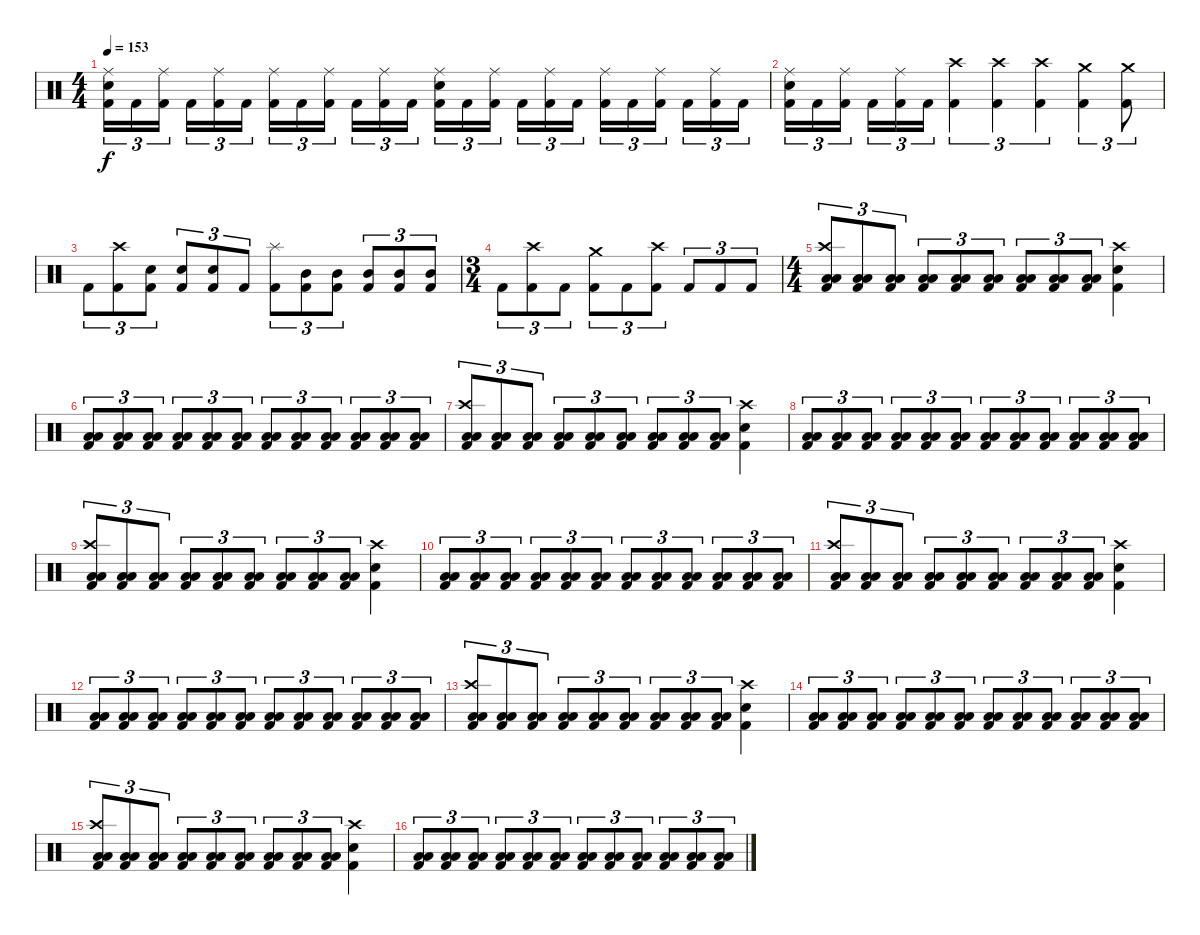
\track "" {instrument percussion}
\staff {score}
\articulation defaults
\ts (4 4)
\tempo 153
\clef neutral
\ks c
("Ride (middle)" "Electric Snare (hit)" "Kick (hit) 2").16{tu (3 2) dy f} "Kick (hit) 2".16{tu (3 2)} ("Ride (middle)" "Kick (hit) 2").16{tu (3 2)} "Kick (hit) 2".16{tu (3 2)} ("Ride (middle)" "Kick (hit) 2").16{tu (3 2)} "Kick (hit) 2".16{tu (3 2)} ("Ride (middle)" "Kick (hit) 2").16{tu (3 2)} "Kick (hit) 2".16{tu (3 2)} ("Ride (middle)" "Kick (hit) 2").16{tu (3 2)} "Kick (hit) 2".16{tu (3 2)} ("Ride (middle)" "Kick (hit) 2").16{tu (3 2)} "Kick (hit) 2".16{tu (3 2)} ("Ride (middle)" "Electric Snare (hit)" "Kick (hit) 2").16{tu (3 2)} "Kick (hit) 2".16{tu (3 2)} ("Ride (middle)" "Kick (hit) 2").16{tu (3 2)} "Kick (hit) 2".16{tu (3 2)} ("Ride (middle)" "Kick (hit) 2").16{tu (3 2)} "Kick (hit) 2".16{tu (3 2)} ("Ride (middle)" "Kick (hit) 2").16{tu (3 2)} "Kick (hit) 2".16{tu (3 2)} ("Ride (middle)" "Kick (hit) 2").16{tu (3 2)} "Kick (hit) 2".16{tu (3 2)} ("Ride (middle)" "Kick (hit) 2").16{tu (3 2)} "Kick (hit) 2".16{tu (3 2)} |
("Ride (middle)" "Electric Snare (hit)" "Kick (hit) 2").16{tu (3 2)} "Kick (hit) 2".16{tu (3 2)} ("Ride (middle)" "Kick (hit) 2").16{tu (3 2)} "Kick (hit) 2".16{tu (3 2)} ("Ride (middle)" "Kick (hit) 2").16{tu (3 2)} "Kick (hit) 2".16{tu (3 2)} ("Crash high (hit)" "Kick (hit) 2").4{tu (3 2)} ("Crash high (hit)" "Kick (hit) 2").4{tu (3 2)} ("Crash high (hit)" "Kick (hit) 2").4{tu (3 2)} ("Crash medium (hit)" "Kick (hit) 2").4{tu (3 2)} ("Crash medium (hit)" "Kick (hit) 2").8{tu (3 2)} |
"Kick (hit) 2".8{tu (3 2)} ("Crash high (hit)" "Kick (hit) 2").8{tu (3 2)} ("Electric Snare (hit)" "Kick (hit) 2").8{tu (3 2)} ("Electric Snare (hit)" "Kick (hit) 2").8{tu (3 2)} ("Electric Snare (hit)" "Kick (hit) 2").8{tu (3 2)} "Kick (hit) 2".8{tu (3 2)} ("Splash (hit)" "Kick (hit) 2").8{tu (3 2)} ("Mid Tom (hit)" "Kick (hit) 2").8{tu (3 2)} ("Mid Tom (hit)" "Kick (hit) 2").8{tu (3 2)} ("Mid Tom (hit)" "Kick (hit) 2").8{tu (3 2)} ("Mid Tom (hit)" "Kick (hit) 2").8{tu (3 2)} ("Mid Tom (hit)" "Kick (hit) 2").8{tu (3 2)} |
\ts (3 4)
"Kick (hit) 2".8{tu (3 2)} ("Crash high (hit)" "Kick (hit) 2").8{tu (3 2)} "Kick (hit) 2".8{tu (3 2)} ("Crash medium (hit)" "Kick (hit) 2").8{tu (3 2)} "Kick (hit) 2".8{tu (3 2)} ("Crash high (hit)" "Kick (hit) 2").8{tu (3 2)} "Kick (hit) 2".8{tu (3 2)} "Kick (hit) 2".8{tu (3 2)} "Kick (hit) 2".8{tu (3 2)} |
\ts (4 4)
\section ("" "")
("Crash high (hit)" "Low Floor Tom (hit)" "Low Tom (hit)" "Kick (hit) 2").8{tu (3 2)} ("Low Floor Tom (hit)" "Low Tom (hit)" "Kick (hit) 2").8{tu (3 2)} ("Low Floor Tom (hit)" "Low Tom (hit)" "Kick (hit) 2").8{tu (3 2)} ("Low Floor Tom (hit)" "Low Tom (hit)" "Kick (hit) 2").8{tu (3 2)} ("Low Floor Tom (hit)" "Low Tom (hit)" "Kick (hit) 2").8{tu (3 2)} ("Low Floor Tom (hit)" "Low Tom (hit)" "Kick (hit) 2").8{tu (3 2)} ("Low Floor Tom (hit)" "Low Tom (hit)" "Kick (hit) 2").8{tu (3 2)} ("Low Floor Tom (hit)" "Low Tom (hit)" "Kick (hit) 2").8{tu (3 2)} ("Low Floor Tom (hit)" "Low Tom (hit)" "Kick (hit) 2").8{tu (3 2)} ("Crash high (hit)" "Electric Snare (hit)" "Kick (hit) 2").4 |
("Low Floor Tom (hit)" "Low Tom (hit)" "Kick (hit) 2").8{tu (3 2)} ("Low Floor Tom (hit)" "Low Tom (hit)" "Kick (hit) 2").8{tu (3 2)} ("Low Floor Tom (hit)" "Low Tom (hit)" "Kick (hit) 2").8{tu (3 2)} ("Low Floor Tom (hit)" "Low Tom (hit)" "Kick (hit) 2").8{tu (3 2)} ("Low Floor Tom (hit)" "Low Tom (hit)" "Kick (hit) 2").8{tu (3 2)} ("Low Floor Tom (hit)" "Low Tom (hit)" "Kick (hit) 2").8{tu (3 2)} ("Low Floor Tom (hit)" "Low Tom (hit)" "Kick (hit) 2").8{tu (3 2)} ("Low Floor Tom (hit)" "Low Tom (hit)" "Kick (hit) 2").8{tu (3 2)} ("Low Floor Tom (hit)" "Low Tom (hit)" "Kick (hit) 2").8{tu (3 2)} ("Low Floor Tom (hit)" "Low Tom (hit)" "Kick (hit) 2").8{tu (3 2)} ("Low Floor Tom (hit)" "Low Tom (hit)" "Kick (hit) 2").8{tu (3 2)} ("Low Floor Tom (hit)" "Low Tom (hit)" "Kick (hit) 2").8{tu (3 2)} |
("Crash high (hit)" "Low Floor Tom (hit)" "Low Tom (hit)" "Kick (hit) 2").8{tu (3 2)} ("Low Floor Tom (hit)" "Low Tom (hit)" "Kick (hit) 2").8{tu (3 2)} ("Low Floor Tom (hit)" "Low Tom (hit)" "Kick (hit) 2").8{tu (3 2)} ("Low Floor Tom (hit)" "Low Tom (hit)" "Kick (hit) 2").8{tu (3 2)} ("Low Floor Tom (hit)" "Low Tom (hit)" "Kick (hit) 2").8{tu (3 2)} ("Low Floor Tom (hit)" "Low Tom (hit)" "Kick (hit) 2").8{tu (3 2)} ("Low Floor Tom (hit)" "Low Tom (hit)" "Kick (hit) 2").8{tu (3 2)} ("Low Floor Tom (hit)" "Low Tom (hit)" "Kick (hit) 2").8{tu (3 2)} ("Low Floor Tom (hit)" "Low Tom (hit)" "Kick (hit) 2").8{tu (3 2)} ("Crash high (hit)" "Electric Snare (hit)" "Kick (hit) 2").4 |
("Low Floor Tom (hit)" "Low Tom (hit)" "Kick (hit) 2").8{tu (3 2)} ("Low Floor Tom (hit)" "Low Tom (hit)" "Kick (hit) 2").8{tu (3 2)} ("Low Floor Tom (hit)" "Low Tom (hit)" "Kick (hit) 2").8{tu (3 2)} ("Low Floor Tom (hit)" "Low Tom (hit)" "Kick (hit) 2").8{tu (3 2)} ("Low Floor Tom (hit)" "Low Tom (hit)" "Kick (hit) 2").8{tu (3 2)} ("Low Floor Tom (hit)" "Low Tom (hit)" "Kick (hit) 2").8{tu (3 2)} ("Low Floor Tom (hit)" "Low Tom (hit)" "Kick (hit) 2").8{tu (3 2)} ("Low Floor Tom (hit)" "Low Tom (hit)" "Kick (hit) 2").8{tu (3 2)} ("Low Floor Tom (hit)" "Low Tom (hit)" "Kick (hit) 2").8{tu (3 2)} ("Low Floor Tom (hit)" "Low Tom (hit)" "Kick (hit) 2").8{tu (3 2)} ("Low Floor Tom (hit)" "Low Tom (hit)" "Kick (hit) 2").8{tu (3 2)} ("Low Floor Tom (hit)" "Low Tom (hit)" "Kick (hit) 2").8{tu (3 2)} |
("Crash high (hit)" "Low Floor Tom (hit)" "Low Tom (hit)" "Kick (hit) 2").8{tu (3 2)} ("Low Floor Tom (hit)" "Low Tom (hit)" "Kick (hit) 2").8{tu (3 2)} ("Low Floor Tom (hit)" "Low Tom (hit)" "Kick (hit) 2").8{tu (3 2)} ("Low Floor Tom (hit)" "Low Tom (hit)" "Kick (hit) 2").8{tu (3 2)} ("Low Floor Tom (hit)" "Low Tom (hit)" "Kick (hit) 2").8{tu (3 2)} ("Low Floor Tom (hit)" "Low Tom (hit)" "Kick (hit) 2").8{tu (3 2)} ("Low Floor Tom (hit)" "Low Tom (hit)" "Kick (hit) 2").8{tu (3 2)} ("Low Floor Tom (hit)" "Low Tom (hit)" "Kick (hit) 2").8{tu (3 2)} ("Low Floor Tom (hit)" "Low Tom (hit)" "Kick (hit) 2").8{tu (3 2)} ("Crash high (hit)" "Electric Snare (hit)" "Kick (hit) 2").4 |
("Low Floor Tom (hit)" "Low Tom (hit)" "Kick (hit) 2").8{tu (3 2)} ("Low Floor Tom (hit)" "Low Tom (hit)" "Kick (hit) 2").8{tu (3 2)} ("Low Floor Tom (hit)" "Low Tom (hit)" "Kick (hit) 2").8{tu (3 2)} ("Low Floor Tom (hit)" "Low Tom (hit)" "Kick (hit) 2").8{tu (3 2)} ("Low Floor Tom (hit)" "Low Tom (hit)" "Kick (hit) 2").8{tu (3 2)} ("Low Floor Tom (hit)" "Low Tom (hit)" "Kick (hit) 2").8{tu (3 2)} ("Low Floor Tom (hit)" "Low Tom (hit)" "Kick (hit) 2").8{tu (3 2)} ("Low Floor Tom (hit)" "Low Tom (hit)" "Kick (hit) 2").8{tu (3 2)} ("Low Floor Tom (hit)" "Low Tom (hit)" "Kick (hit) 2").8{tu (3 2)} ("Low Floor Tom (hit)" "Low Tom (hit)" "Kick (hit) 2").8{tu (3 2)} ("Low Floor Tom (hit)" "Low Tom (hit)" "Kick (hit) 2").8{tu (3 2)} ("Low Floor Tom (hit)" "Low Tom (hit)" "Kick (hit) 2").8{tu (3 2)} |
("Crash high (hit)" "Low Floor Tom (hit)" "Low Tom (hit)" "Kick (hit) 2").8{tu (3 2)} ("Low Floor Tom (hit)" "Low Tom (hit)" "Kick (hit) 2").8{tu (3 2)} ("Low Floor Tom (hit)" "Low Tom (hit)" "Kick (hit) 2").8{tu (3 2)} ("Low Floor Tom (hit)" "Low Tom (hit)" "Kick (hit) 2").8{tu (3 2)} ("Low Floor Tom (hit)" "Low Tom (hit)" "Kick (hit) 2").8{tu (3 2)} ("Low Floor Tom (hit)" "Low Tom (hit)" "Kick (hit) 2").8{tu (3 2)} ("Low Floor Tom (hit)" "Low Tom (hit)" "Kick (hit) 2").8{tu (3 2)} ("Low Floor Tom (hit)" "Low Tom (hit)" "Kick (hit) 2").8{tu (3 2)} ("Low Floor Tom (hit)" "Low Tom (hit)" "Kick (hit) 2").8{tu (3 2)} ("Crash high (hit)" "Electric Snare (hit)" "Kick (hit) 2").4 |
("Low Floor Tom (hit)" "Low Tom (hit)" "Kick (hit) 2").8{tu (3 2)} ("Low Floor Tom (hit)" "Low Tom (hit)" "Kick (hit) 2").8{tu (3 2)} ("Low Floor Tom (hit)" "Low Tom (hit)" "Kick (hit) 2").8{tu (3 2)} ("Low Floor Tom (hit)" "Low Tom (hit)" "Kick (hit) 2").8{tu (3 2)} ("Low Floor Tom (hit)" "Low Tom (hit)" "Kick (hit) 2").8{tu (3 2)} ("Low Floor Tom (hit)" "Low Tom (hit)" "Kick (hit) 2").8{tu (3 2)} ("Low Floor Tom (hit)" "Low Tom (hit)" "Kick (hit) 2").8{tu (3 2)} ("Low Floor Tom (hit)" "Low Tom (hit)" "Kick (hit) 2").8{tu (3 2)} ("Low Floor Tom (hit)" "Low Tom (hit)" "Kick (hit) 2").8{tu (3 2)} ("Low Floor Tom (hit)" "Low Tom (hit)" "Kick (hit) 2").8{tu (3 2)} ("Low Floor Tom (hit)" "Low Tom (hit)" "Kick (hit) 2").8{tu (3 2)} ("Low Floor Tom (hit)" "Low Tom (hit)" "Kick (hit) 2").8{tu (3 2)} |
("Crash high (hit)" "Low Floor Tom (hit)" "Low Tom (hit)" "Kick (hit) 2").8{tu (3 2)} ("Low Floor Tom (hit)" "Low Tom (hit)" "Kick (hit) 2").8{tu (3 2)} ("Low Floor Tom (hit)" "Low Tom (hit)" "Kick (hit) 2").8{tu (3 2)} ("Low Floor Tom (hit)" "Low Tom (hit)" "Kick (hit) 2").8{tu (3 2)} ("Low Floor Tom (hit)" "Low Tom (hit)" "Kick (hit) 2").8{tu (3 2)} ("Low Floor Tom (hit)" "Low Tom (hit)" "Kick (hit) 2").8{tu (3 2)} ("Low Floor Tom (hit)" "Low Tom (hit)" "Kick (hit) 2").8{tu (3 2)} ("Low Floor Tom (hit)" "Low Tom (hit)" "Kick (hit) 2").8{tu (3 2)} ("Low Floor Tom (hit)" "Low Tom (hit)" "Kick (hit) 2").8{tu (3 2)} ("Crash high (hit)" "Electric Snare (hit)" "Kick (hit) 2").4 |
("Low Floor Tom (hit)" "Low Tom (hit)" "Kick (hit) 2").8{tu (3 2)} ("Low Floor Tom (hit)" "Low Tom (hit)" "Kick (hit) 2").8{tu (3 2)} ("Low Floor Tom (hit)" "Low Tom (hit)" "Kick (hit) 2").8{tu (3 2)} ("Low Floor Tom (hit)" "Low Tom (hit)" "Kick (hit) 2").8{tu (3 2)} ("Low Floor Tom (hit)" "Low Tom (hit)" "Kick (hit) 2").8{tu (3 2)} ("Low Floor Tom (hit)" "Low Tom (hit)" "Kick (hit) 2").8{tu (3 2)} ("Low Floor Tom (hit)" "Low Tom (hit)" "Kick (hit) 2").8{tu (3 2)} ("Low Floor Tom (hit)" "Low Tom (hit)" "Kick (hit) 2").8{tu (3 2)} ("Low Floor Tom (hit)" "Low Tom (hit)" "Kick (hit) 2").8{tu (3 2)} ("Low Floor Tom (hit)" "Low Tom (hit)" "Kick (hit) 2").8{tu (3 2)} ("Low Floor Tom (hit)" "Low Tom (hit)" "Kick (hit) 2").8{tu (3 2)} ("Low Floor Tom (hit)" "Low Tom (hit)" "Kick (hit) 2").8{tu (3 2)} |
("Crash high (hit)" "Low Floor Tom (hit)" "Low Tom (hit)" "Kick (hit) 2").8{tu (3 2)} ("Low Floor Tom (hit)" "Low Tom (hit)" "Kick (hit) 2").8{tu (3 2)} ("Low Floor Tom (hit)" "Low Tom (hit)" "Kick (hit) 2").8{tu (3 2)} ("Low Floor Tom (hit)" "Low Tom (hit)" "Kick (hit) 2").8{tu (3 2)} ("Low Floor Tom (hit)" "Low Tom (hit)" "Kick (hit) 2").8{tu (3 2)} ("Low Floor Tom (hit)" "Low Tom (hit)" "Kick (hit) 2").8{tu (3 2)} ("Low Floor Tom (hit)" "Low Tom (hit)" "Kick (hit) 2").8{tu (3 2)} ("Low Floor Tom (hit)" "Low Tom (hit)" "Kick (hit) 2").8{tu (3 2)} ("Low Floor Tom (hit)" "Low Tom (hit)" "Kick (hit) 2").8{tu (3 2)} ("Crash high (hit)" "Electric Snare (hit)" "Kick (hit) 2").4 |
("Low Floor Tom (hit)" "Low Tom (hit)" "Kick (hit) 2").8{tu (3 2)} ("Low Floor Tom (hit)" "Low Tom (hit)" "Kick (hit) 2").8{tu (3 2)} ("Low Floor Tom (hit)" "Low Tom (hit)" "Kick (hit) 2").8{tu (3 2)} ("Low Floor Tom (hit)" "Low Tom (hit)" "Kick (hit) 2").8{tu (3 2)} ("Low Floor Tom (hit)" "Low Tom (hit)" "Kick (hit) 2").8{tu (3 2)} ("Low Floor Tom (hit)" "Low Tom (hit)" "Kick (hit) 2").8{tu (3 2)} ("Low Floor Tom (hit)" "Low Tom (hit)" "Kick (hit) 2").8{tu (3 2)} ("Low Floor Tom (hit)" "Low Tom (hit)" "Kick (hit) 2").8{tu (3 2)} ("Low Floor Tom (hit)" "Low Tom (hit)" "Kick (hit) 2").8{tu (3 2)} ("Low Floor Tom (hit)" "Low Tom (hit)" "Kick (hit) 2").8{tu (3 2)} ("Low Floor Tom (hit)" "Low Tom (hit)" "Kick (hit) 2").8{tu (3 2)} ("Low Floor Tom (hit)" "Low Tom (hit)" "Kick (hit) 2").8{tu (3 2)}
